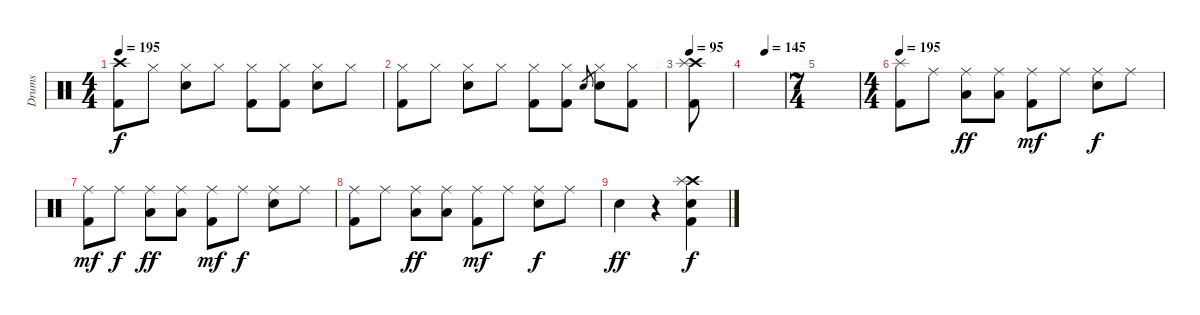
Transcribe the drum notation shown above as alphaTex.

\track ("Drums" "Drums") {instrument percussion}
\staff {score}
\articulation defaults
\ts (4 4)
\tempo 195
\clef neutral
\ks c
("Crash high (hit)" "Kick (hit) 2").8{dy f} "Hi-Hat (closed)".8 ("Hi-Hat (closed)" "Snare (hit) 2").8 "Hi-Hat (closed)".8 ("Hi-Hat (closed)" "Kick (hit) 2").8 ("Hi-Hat (closed)" "Kick (hit) 2").8 ("Hi-Hat (closed)" "Snare (hit) 2").8 "Hi-Hat (closed)".8 |
("Hi-Hat (closed)" "Kick (hit) 2").8 "Hi-Hat (closed)".8 ("Hi-Hat (closed)" "Snare (hit) 2").8 "Hi-Hat (closed)".8 ("Hi-Hat (closed)" "Kick (hit) 2").8 ("Hi-Hat (closed)" "Kick (hit) 2").8 "Snare (hit) 2".8{gr} ("Hi-Hat (closed)" "Snare (hit) 2").8 ("Hi-Hat (closed)" "Kick (hit) 2").8 |
\tempo 95
("Crash high (hit)" "Splash (hit)" "Kick (hit) 2").8 |
\tempo (145 0.5)
|
\ts (7 4)
|
\ts (4 4)
\tempo 195
("Splash (hit)" "Kick (hit) 2").8 "Ride (middle)".8 ("Ride (middle)" "Low Tom (hit)").8{dy ff} ("Ride (middle)" "Low Tom (hit)").8 ("Ride (middle)" "Kick (hit) 2").8{dy mf} "Ride (middle)".8 ("Ride (middle)" "Snare (hit) 2").8{dy f} "Ride (middle)".8 |
("Ride (middle)" "Kick (hit) 2").8{dy mf} "Ride (middle)".8{dy f} ("Ride (middle)" "Low Tom (hit)").8{dy ff} ("Ride (middle)" "Low Tom (hit)").8 ("Ride (middle)" "Kick (hit) 2").8{dy mf} "Ride (middle)".8{dy f} ("Ride (middle)" "Snare (hit) 2").8 "Ride (middle)".8 |
("Ride (middle)" "Kick (hit) 2").8 "Ride (middle)".8 ("Ride (middle)" "Low Tom (hit)").8{dy ff} ("Ride (middle)" "Low Tom (hit)").8 ("Ride (middle)" "Kick (hit) 2").8{dy mf} "Ride (middle)".8 ("Ride (middle)" "Snare (hit) 2").8{dy f} "Ride (middle)".8 |
"Snare (hit) 2".4{dy ff} r.4 ("Crash high (hit)" "Splash (hit)" "Snare (hit) 2" "Kick (hit) 2").4{dy f}
